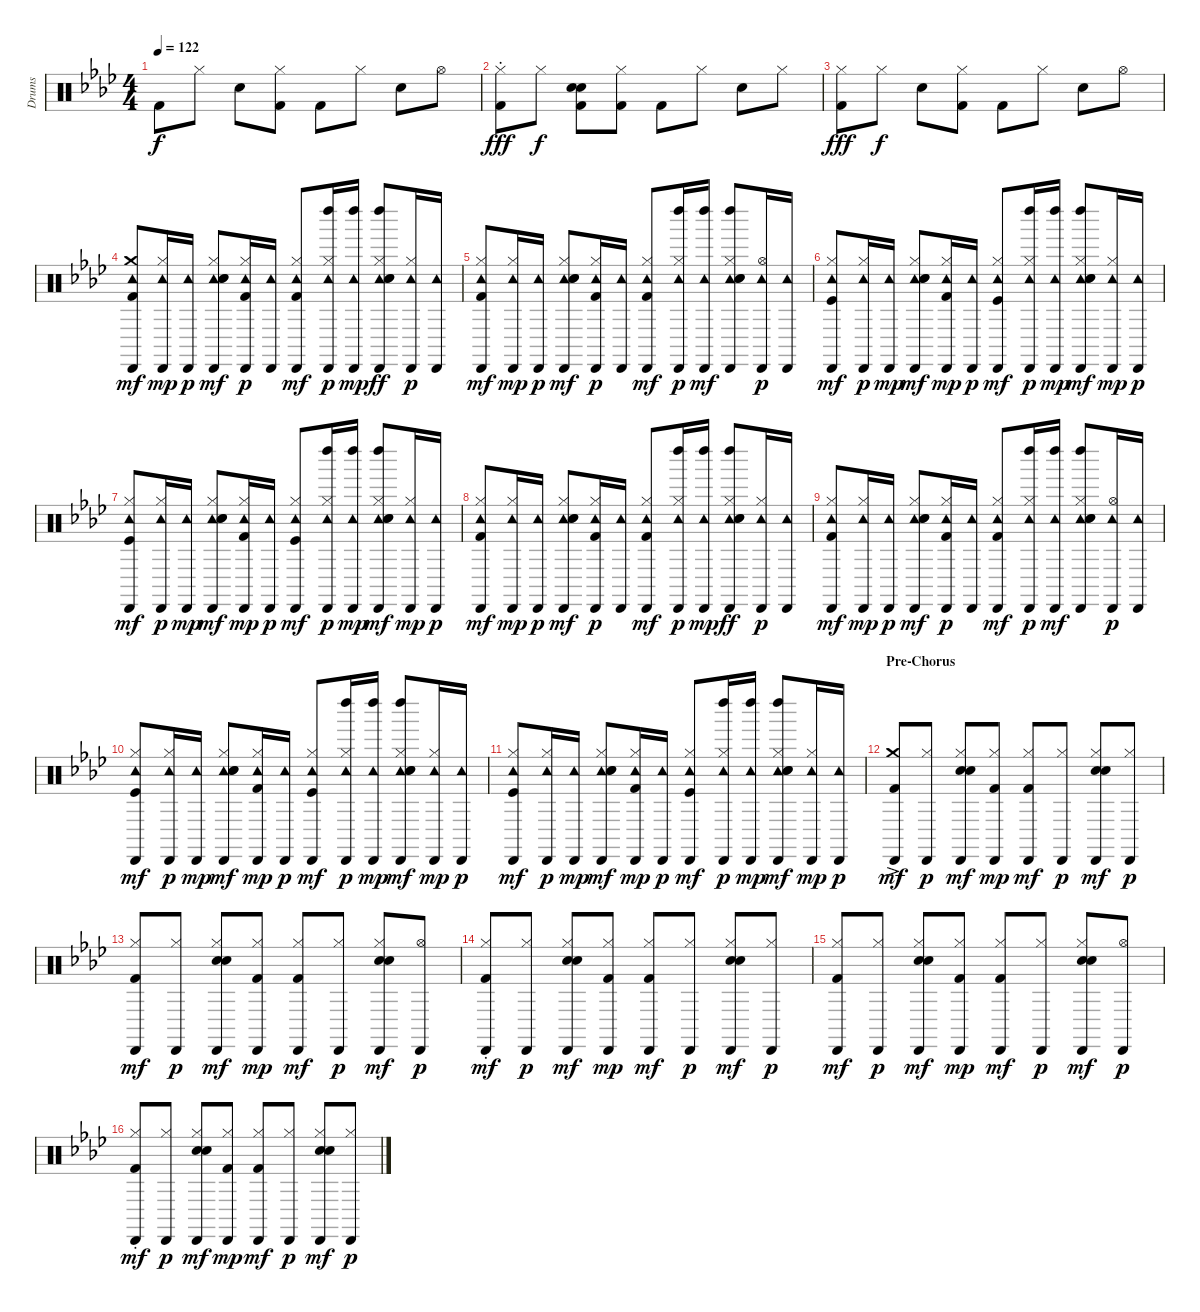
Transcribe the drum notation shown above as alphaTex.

\track ("Drums" "Drums") {instrument percussion}
\staff {score}
\articulation defaults
\ts (4 4)
\tempo 122
\clef neutral
\ks ab "Kick (hit) 2".8{dy f} "Hi-Hat (closed)".8 "Hand Clap (hit)".8
("Hi-Hat (closed)" "Kick (hit) 2").8 "Kick (hit) 2".8 "Hi-Hat (closed)".8 "Hand Clap (hit)".8 "Hi-Hat (open)".8 |
("Hi-Hat (closed)"{st} "Kick (hit) 2").8{dy fff} "Hi-Hat (closed)".8{dy f} ("Hand Clap (hit)" "Electric Snare (hit)" "Kick (hit) 2").8 ("Hi-Hat (closed)" "Kick (hit) 2").8 "Kick (hit) 2".8 "Hi-Hat (closed)".8 "Hand Clap (hit)".8 "Hi-Hat (closed)".8 |
("Hi-Hat (closed)" "Kick (hit) 2").8{dy fff} "Hi-Hat (closed)".8{dy f} "Hand Clap (hit)".8 ("Hi-Hat (closed)" "Kick (hit) 2").8 "Kick (hit) 2".8 "Hi-Hat (closed)".8 "Hand Clap (hit)".8 "Hi-Hat (open)".8 |
("Crash medium (hit)" "Cabasa (hit)" "Tambourine (hit)" "Kick (hit) 2").8{dy mf} ("Hi-Hat (closed)" "Cabasa (hit)" "Tambourine (hit)").16{dy mp} ("Cabasa (hit)" "Tambourine (hit)").16{dy p} ("Hi-Hat (closed)" "Cabasa (hit)" "Tambourine (hit)" "Hand Clap (hit)" "Electric Snare (hit)").8{dy mf} ("Hi-Hat (closed)" "Cabasa (hit)" "Tambourine (hit)" "Kick (hit) 2").16{dy p} ("Cabasa (hit)" "Tambourine (hit)").16 ("Hi-Hat (closed)" "Cabasa (hit)" "Tambourine (hit)" "Kick (hit) 2").8{dy mf} ("Hi-Hat (closed)" "Cabasa (hit)" "Tambourine (hit)" "Left Maraca (hit)").16{dy p} ("Cabasa (hit)" "Tambourine (hit)" "Left Maraca (hit)").16{dy mp} ("Hi-Hat (closed)" "Cabasa (hit)" "Tambourine (hit)" "Left Maraca (hit)" "Electric Snare (hit)" "Hand Clap (hit)").8{dy ff} ("Hi-Hat (closed)" "Cabasa (hit)" "Tambourine (hit)").16{dy p} ("Cabasa (hit)" "Tambourine (hit)").16 |
("Hi-Hat (closed)" "Cabasa (hit)" "Tambourine (hit)" "Kick (hit) 2").8{dy mf} ("Hi-Hat (closed)" "Cabasa (hit)" "Tambourine (hit)").16{dy mp} ("Cabasa (hit)" "Tambourine (hit)").16{dy p} ("Hi-Hat (closed)" "Cabasa (hit)" "Tambourine (hit)" "Hand Clap (hit)" "Electric Snare (hit)").8{dy mf} ("Hi-Hat (closed)" "Cabasa (hit)" "Tambourine (hit)" "Kick (hit) 2").16{dy p} ("Cabasa (hit)" "Tambourine (hit)").16 ("Hi-Hat (closed)" "Cabasa (hit)" "Tambourine (hit)" "Kick (hit) 2").8{dy mf} ("Hi-Hat (closed)" "Cabasa (hit)" "Tambourine (hit)" "Left Maraca (hit)").16{dy p} ("Cabasa (hit)" "Tambourine (hit)" "Left Maraca (hit)").16{dy mf} ("Hi-Hat (closed)" "Cabasa (hit)" "Tambourine (hit)" "Left Maraca (hit)" "Electric Snare (hit)" "Hand Clap (hit)").8 ("Hi-Hat (open)" "Cabasa (hit)" "Tambourine (hit)").16{dy p} ("Cabasa (hit)" "Tambourine (hit)").16 |
("Hi-Hat (closed)" "Cabasa (hit)" "Tambourine (hit)" "Kick (hit)").8{dy mf} ("Hi-Hat (closed)" "Cabasa (hit)" "Tambourine (hit)").16{dy p} ("Cabasa (hit)" "Tambourine (hit)").16{dy mp} ("Hi-Hat (closed)" "Cabasa (hit)" "Tambourine (hit)" "Electric Snare (hit)" "Hand Clap (hit)").8{dy mf} ("Hi-Hat (closed)" "Cabasa (hit)" "Tambourine (hit)" "Kick (hit) 2").16{dy mp} ("Cabasa (hit)" "Tambourine (hit)").16{dy p} ("Hi-Hat (closed)" "Cabasa (hit)" "Tambourine (hit)" "Kick (hit)").8{dy mf} ("Hi-Hat (closed)" "Cabasa (hit)" "Tambourine (hit)" "Left Maraca (hit)").16{dy p} ("Cabasa (hit)" "Tambourine (hit)" "Left Maraca (hit)").16{dy mp} ("Hi-Hat (closed)" "Cabasa (hit)" "Tambourine (hit)" "Left Maraca (hit)" "Electric Snare (hit)" "Hand Clap (hit)").8{dy mf} ("Hi-Hat (closed)" "Cabasa (hit)" "Tambourine (hit)").16{dy mp} ("Cabasa (hit)" "Tambourine (hit)").16{dy p} |
("Hi-Hat (closed)" "Cabasa (hit)" "Tambourine (hit)" "Kick (hit)").8{dy mf} ("Hi-Hat (closed)" "Cabasa (hit)" "Tambourine (hit)").16{dy p} ("Cabasa (hit)" "Tambourine (hit)").16{dy mp} ("Hi-Hat (closed)" "Cabasa (hit)" "Tambourine (hit)" "Electric Snare (hit)" "Hand Clap (hit)").8{dy mf} ("Hi-Hat (closed)" "Cabasa (hit)" "Tambourine (hit)" "Kick (hit) 2").16{dy mp} ("Cabasa (hit)" "Tambourine (hit)").16{dy p} ("Hi-Hat (closed)" "Cabasa (hit)" "Tambourine (hit)" "Kick (hit)").8{dy mf} ("Hi-Hat (closed)" "Cabasa (hit)" "Tambourine (hit)" "Left Maraca (hit)").16{dy p} ("Cabasa (hit)" "Tambourine (hit)" "Left Maraca (hit)").16{dy mp} ("Hi-Hat (closed)" "Cabasa (hit)" "Tambourine (hit)" "Left Maraca (hit)" "Electric Snare (hit)" "Hand Clap (hit)").8{dy mf} ("Hi-Hat (closed)" "Cabasa (hit)" "Tambourine (hit)").16{dy mp} ("Cabasa (hit)" "Tambourine (hit)").16{dy p} |
("Hi-Hat (closed)" "Cabasa (hit)" "Tambourine (hit)" "Kick (hit) 2").8{dy mf} ("Hi-Hat (closed)" "Cabasa (hit)" "Tambourine (hit)").16{dy mp} ("Cabasa (hit)" "Tambourine (hit)").16{dy p} ("Hi-Hat (closed)" "Cabasa (hit)" "Tambourine (hit)" "Hand Clap (hit)" "Electric Snare (hit)").8{dy mf} ("Hi-Hat (closed)" "Cabasa (hit)" "Tambourine (hit)" "Kick (hit) 2").16{dy p} ("Cabasa (hit)" "Tambourine (hit)").16 ("Hi-Hat (closed)" "Cabasa (hit)" "Tambourine (hit)" "Kick (hit) 2").8{dy mf} ("Hi-Hat (closed)" "Cabasa (hit)" "Tambourine (hit)" "Left Maraca (hit)").16{dy p} ("Cabasa (hit)" "Tambourine (hit)" "Left Maraca (hit)").16{dy mp} ("Hi-Hat (closed)" "Cabasa (hit)" "Tambourine (hit)" "Left Maraca (hit)" "Electric Snare (hit)" "Hand Clap (hit)").8{dy ff} ("Hi-Hat (closed)" "Cabasa (hit)" "Tambourine (hit)").16{dy p} ("Cabasa (hit)" "Tambourine (hit)").16 |
("Hi-Hat (closed)" "Cabasa (hit)" "Tambourine (hit)" "Kick (hit) 2").8{dy mf} ("Hi-Hat (closed)" "Cabasa (hit)" "Tambourine (hit)").16{dy mp} ("Cabasa (hit)" "Tambourine (hit)").16{dy p} ("Hi-Hat (closed)" "Cabasa (hit)" "Tambourine (hit)" "Hand Clap (hit)" "Electric Snare (hit)").8{dy mf} ("Hi-Hat (closed)" "Cabasa (hit)" "Tambourine (hit)" "Kick (hit) 2").16{dy p} ("Cabasa (hit)" "Tambourine (hit)").16 ("Hi-Hat (closed)" "Cabasa (hit)" "Tambourine (hit)" "Kick (hit) 2").8{dy mf} ("Hi-Hat (closed)" "Cabasa (hit)" "Tambourine (hit)" "Left Maraca (hit)").16{dy p} ("Cabasa (hit)" "Tambourine (hit)" "Left Maraca (hit)").16{dy mf} ("Hi-Hat (closed)" "Cabasa (hit)" "Tambourine (hit)" "Left Maraca (hit)" "Electric Snare (hit)" "Hand Clap (hit)").8 ("Hi-Hat (open)" "Cabasa (hit)" "Tambourine (hit)").16{dy p} ("Cabasa (hit)" "Tambourine (hit)").16 |
("Hi-Hat (closed)" "Cabasa (hit)" "Tambourine (hit)" "Kick (hit)").8{dy mf} ("Hi-Hat (closed)" "Cabasa (hit)" "Tambourine (hit)").16{dy p} ("Cabasa (hit)" "Tambourine (hit)").16{dy mp} ("Hi-Hat (closed)" "Cabasa (hit)" "Tambourine (hit)" "Electric Snare (hit)" "Hand Clap (hit)").8{dy mf} ("Hi-Hat (closed)" "Cabasa (hit)" "Tambourine (hit)" "Kick (hit) 2").16{dy mp} ("Cabasa (hit)" "Tambourine (hit)").16{dy p} ("Hi-Hat (closed)" "Cabasa (hit)" "Tambourine (hit)" "Kick (hit)").8{dy mf} ("Hi-Hat (closed)" "Cabasa (hit)" "Tambourine (hit)" "Left Maraca (hit)").16{dy p} ("Cabasa (hit)" "Tambourine (hit)" "Left Maraca (hit)").16{dy mp} ("Hi-Hat (closed)" "Cabasa (hit)" "Tambourine (hit)" "Left Maraca (hit)" "Electric Snare (hit)" "Hand Clap (hit)").8{dy mf} ("Hi-Hat (closed)" "Cabasa (hit)" "Tambourine (hit)").16{dy mp} ("Cabasa (hit)" "Tambourine (hit)").16{dy p} |
("Hi-Hat (closed)" "Cabasa (hit)" "Tambourine (hit)" "Kick (hit)").8{dy mf} ("Hi-Hat (closed)" "Cabasa (hit)" "Tambourine (hit)").16{dy p} ("Cabasa (hit)" "Tambourine (hit)").16{dy mp} ("Hi-Hat (closed)" "Cabasa (hit)" "Tambourine (hit)" "Electric Snare (hit)" "Hand Clap (hit)").8{dy mf} ("Hi-Hat (closed)" "Cabasa (hit)" "Tambourine (hit)" "Kick (hit) 2").16{dy mp} ("Cabasa (hit)" "Tambourine (hit)").16{dy p} ("Hi-Hat (closed)" "Cabasa (hit)" "Tambourine (hit)" "Kick (hit)").8{dy mf} ("Hi-Hat (closed)" "Cabasa (hit)" "Tambourine (hit)" "Left Maraca (hit)").16{dy p} ("Cabasa (hit)" "Tambourine (hit)" "Left Maraca (hit)").16{dy mp} ("Hi-Hat (closed)" "Cabasa (hit)" "Tambourine (hit)" "Left Maraca (hit)" "Electric Snare (hit)" "Hand Clap (hit)").8{dy mf} ("Hi-Hat (closed)" "Cabasa (hit)" "Tambourine (hit)").16{dy mp} ("Cabasa (hit)" "Tambourine (hit)").16{dy p} |
\section ("" "Pre-Chorus")
("Crash medium (hit)"{ac} "Cabasa (hit)" "Kick (hit) 2").8{dy mf} ("Hi-Hat (closed)" "Cabasa (hit)").8{dy p} ("Hi-Hat (closed)" "Cabasa (hit)" "Hand Clap (hit)" "Electric Snare (hit)").8{dy mf} ("Hi-Hat (closed)" "Cabasa (hit)" "Kick (hit) 2").8{dy mp} ("Hi-Hat (closed)" "Cabasa (hit)" "Kick (hit) 2").8{dy mf} ("Hi-Hat (closed)" "Cabasa (hit)").8{dy p} ("Hi-Hat (closed)" "Cabasa (hit)" "Hand Clap (hit)" "Electric Snare (hit)").8{dy mf} ("Hi-Hat (closed)" "Cabasa (hit)").8{dy p} |
("Hi-Hat (closed)" "Cabasa (hit)" "Kick (hit) 2").8{dy mf} ("Hi-Hat (closed)" "Cabasa (hit)").8{dy p} ("Hi-Hat (closed)" "Cabasa (hit)" "Hand Clap (hit)" "Electric Snare (hit)").8{dy mf} ("Hi-Hat (closed)" "Cabasa (hit)" "Kick (hit) 2").8{dy mp} ("Hi-Hat (closed)" "Cabasa (hit)" "Kick (hit) 2").8{dy mf} ("Hi-Hat (closed)" "Cabasa (hit)").8{dy p} ("Hi-Hat (closed)" "Cabasa (hit)" "Hand Clap (hit)" "Electric Snare (hit)").8{dy mf} ("Hi-Hat (open)" "Cabasa (hit)").8{dy p} |
("Hi-Hat (closed)"{st} "Cabasa (hit)" "Kick (hit) 2").8{dy mf} ("Hi-Hat (closed)" "Cabasa (hit)").8{dy p} ("Hi-Hat (closed)" "Cabasa (hit)" "Hand Clap (hit)" "Electric Snare (hit)").8{dy mf} ("Hi-Hat (closed)" "Cabasa (hit)" "Kick (hit) 2").8{dy mp} ("Hi-Hat (closed)" "Cabasa (hit)" "Kick (hit) 2").8{dy mf} ("Hi-Hat (closed)" "Cabasa (hit)").8{dy p} ("Hi-Hat (closed)" "Cabasa (hit)" "Hand Clap (hit)" "Electric Snare (hit)").8{dy mf} ("Hi-Hat (closed)" "Cabasa (hit)").8{dy p} |
("Hi-Hat (closed)" "Cabasa (hit)" "Kick (hit) 2").8{dy mf} ("Hi-Hat (closed)" "Cabasa (hit)").8{dy p} ("Hi-Hat (closed)" "Cabasa (hit)" "Hand Clap (hit)" "Electric Snare (hit)").8{dy mf} ("Hi-Hat (closed)" "Cabasa (hit)" "Kick (hit) 2").8{dy mp} ("Hi-Hat (closed)" "Cabasa (hit)" "Kick (hit) 2").8{dy mf} ("Hi-Hat (closed)" "Cabasa (hit)").8{dy p} ("Hi-Hat (closed)" "Cabasa (hit)" "Hand Clap (hit)" "Electric Snare (hit)").8{dy mf} ("Hi-Hat (open)" "Cabasa (hit)").8{dy p} |
("Hi-Hat (closed)"{st} "Cabasa (hit)" "Kick (hit) 2").8{dy mf} ("Hi-Hat (closed)" "Cabasa (hit)").8{dy p} ("Hi-Hat (closed)" "Cabasa (hit)" "Hand Clap (hit)" "Electric Snare (hit)").8{dy mf} ("Hi-Hat (closed)" "Cabasa (hit)" "Kick (hit) 2").8{dy mp} ("Hi-Hat (closed)" "Cabasa (hit)" "Kick (hit) 2").8{dy mf} ("Hi-Hat (closed)" "Cabasa (hit)").8{dy p} ("Hi-Hat (closed)" "Cabasa (hit)" "Hand Clap (hit)" "Electric Snare (hit)").8{dy mf} ("Hi-Hat (closed)" "Cabasa (hit)").8{dy p}
